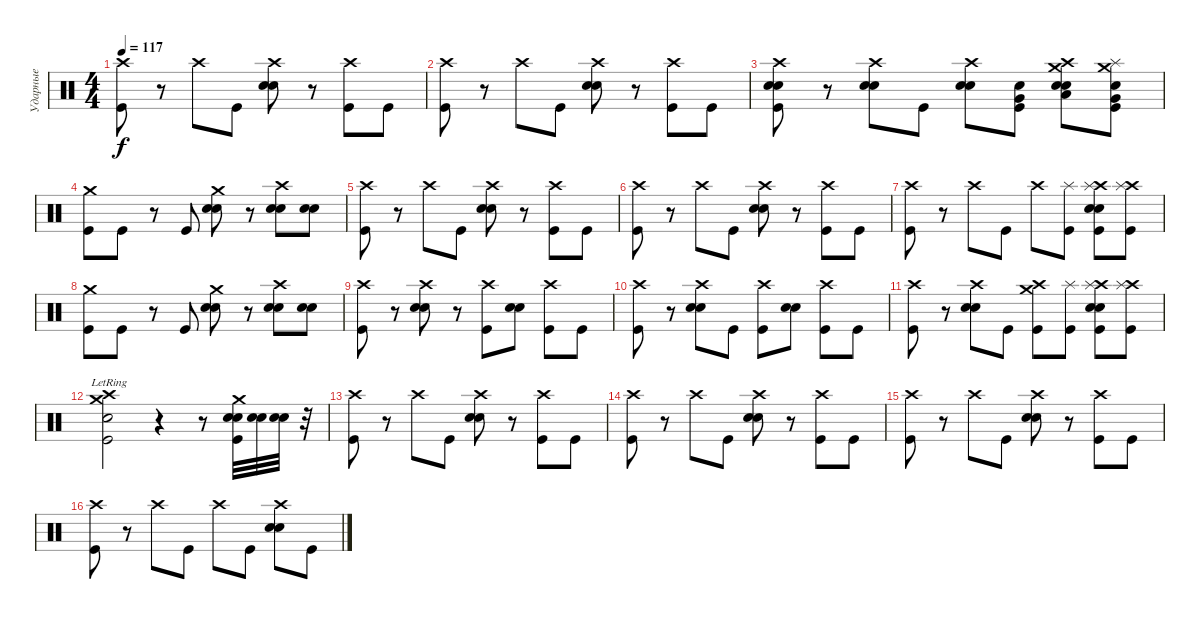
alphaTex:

\track ("Ударные" "Ударные") {instrument percussion}
\staff {score}
\articulation defaults
\ts (4 4)
\tempo 117
\clef neutral
\ks c
("Crash high (hit)" "Kick (hit)").8{dy f} r.8 "Crash high (hit)".8 "Kick (hit)".8 ("Crash high (hit)" "Snare (hit) 2" "Snare (hit) 2").8 r.8 ("Crash high (hit)" "Kick (hit)").8 "Kick (hit)".8 |
("Crash high (hit)" "Kick (hit)").8 r.8 "Crash high (hit)".8 "Kick (hit)".8 ("Crash high (hit)" "Snare (hit) 2" "Snare (hit) 2").8 r.8 ("Crash high (hit)" "Kick (hit)").8 "Kick (hit)".8 |
("Crash high (hit)" "Snare (hit) 2" "Snare (hit) 2" "Kick (hit)").8 r.8 ("Crash high (hit)" "Snare (hit) 2" "Snare (hit) 2").8 "Kick (hit)".8 ("Crash high (hit)" "Snare (hit) 2" "Snare (hit) 2").8 ("Electric Snare (hit)" "Very Low Tom (hit)" "Kick (hit)").8 ("Crash high (hit)" "Crash medium (hit)" "Snare (hit) 2" "Snare (hit) 2" "Low Floor Tom (hit)").8 ("Crash medium (hit)" "Splash (hit)" "Electric Snare (hit)" "Very Low Tom (hit)" "Kick (hit)").8 |
("Crash medium (hit)" "Kick (hit)").8 "Kick (hit)".8 r.8 "Kick (hit)".8 ("Crash medium (hit)" "Electric Snare (hit)" "Electric Snare (hit)").8 r.8 ("Crash high (hit)" "Snare (hit) 2" "Snare (hit) 2").8 ("Snare (hit) 2" "Snare (hit) 2").8 |
("Crash high (hit)" "Kick (hit)").8 r.8 "Crash high (hit)".8 "Kick (hit)".8 ("Crash high (hit)" "Snare (hit) 2" "Snare (hit) 2").8 r.8 ("Crash high (hit)" "Kick (hit)").8 "Kick (hit)".8 |
("Crash high (hit)" "Kick (hit)").8 r.8 "Crash high (hit)".8 "Kick (hit)".8 ("Crash high (hit)" "Snare (hit) 2" "Snare (hit) 2").8 r.8 ("Crash high (hit)" "Kick (hit)").8 "Kick (hit)".8 |
("Crash high (hit)" "Kick (hit)").8 r.8 "Crash high (hit)".8 "Kick (hit)".8 "Crash high (hit)".8 ("Splash (hit)" "Kick (hit)").8 ("Crash high (hit)" "Splash (hit)" "Snare (hit) 2" "Snare (hit) 2" "Kick (hit)").8 ("Crash high (hit)" "Splash (hit)" "Kick (hit)").8 |
("Crash medium (hit)" "Kick (hit)").8 "Kick (hit)".8 r.8 "Kick (hit)".8 ("Crash medium (hit)" "Electric Snare (hit)" "Electric Snare (hit)").8 r.8 ("Crash high (hit)" "Snare (hit) 2" "Snare (hit) 2").8 ("Snare (hit) 2" "Snare (hit) 2").8 |
("Crash high (hit)" "Kick (hit)").8 r.8 ("Crash high (hit)" "Snare (hit) 2" "Snare (hit) 2").8 r.8 ("Crash high (hit)" "Kick (hit)").8 ("Snare (hit) 2" "Snare (hit) 2").8 ("Crash high (hit)" "Kick (hit)").8 "Kick (hit)".8 |
("Crash high (hit)" "Kick (hit)").8 r.8 ("Crash high (hit)" "Snare (hit) 2" "Snare (hit) 2").8 "Kick (hit)".8 ("Crash high (hit)" "Kick (hit)").8 ("Snare (hit) 2" "Snare (hit) 2").8 ("Crash high (hit)" "Kick (hit)").8 "Kick (hit)".8 |
("Crash high (hit)" "Kick (hit)").8 r.8 ("Crash high (hit)" "Snare (hit) 2" "Snare (hit) 2").8 "Kick (hit)".8 ("Crash high (hit)" "Crash medium (hit)" "Kick (hit)").8 ("Splash (hit)" "Kick (hit)").8 ("Crash high (hit)" "Splash (hit)" "Snare (hit) 2" "Snare (hit) 2" "Kick (hit)").8 ("Crash high (hit)" "Splash (hit)" "Kick (hit)").8 |
("Crash high (hit)"{lr} "Crash medium (hit)"{lr} "Electric Snare (hit)" "Kick (hit)"{lr}).2 r.4 r.8 ("Crash medium (hit)" "Electric Snare (hit)" "Electric Snare (hit)" "Kick (hit)").32 ("Electric Snare (hit)" "Electric Snare (hit)").32 ("Electric Snare (hit)" "Electric Snare (hit)").32 r.32 |
("Crash high (hit)" "Kick (hit)").8 r.8 "Crash high (hit)".8 "Kick (hit)".8 ("Crash high (hit)" "Snare (hit) 2" "Snare (hit) 2").8 r.8 ("Crash high (hit)" "Kick (hit)").8 "Kick (hit)".8 |
("Crash high (hit)" "Kick (hit)").8 r.8 "Crash high (hit)".8 "Kick (hit)".8 ("Crash high (hit)" "Snare (hit) 2" "Snare (hit) 2").8 r.8 ("Crash high (hit)" "Kick (hit)").8 "Kick (hit)".8 |
("Crash high (hit)" "Kick (hit)").8 r.8 "Crash high (hit)".8 "Kick (hit)".8 ("Crash high (hit)" "Snare (hit) 2" "Snare (hit) 2").8 r.8 ("Crash high (hit)" "Kick (hit)").8 "Kick (hit)".8 |
("Crash high (hit)" "Kick (hit)").8 r.8 "Crash high (hit)".8 "Kick (hit)".8 "Crash high (hit)".8 "Kick (hit)".8 ("Crash high (hit)" "Snare (hit) 2" "Snare (hit) 2").8 "Kick (hit)".8
